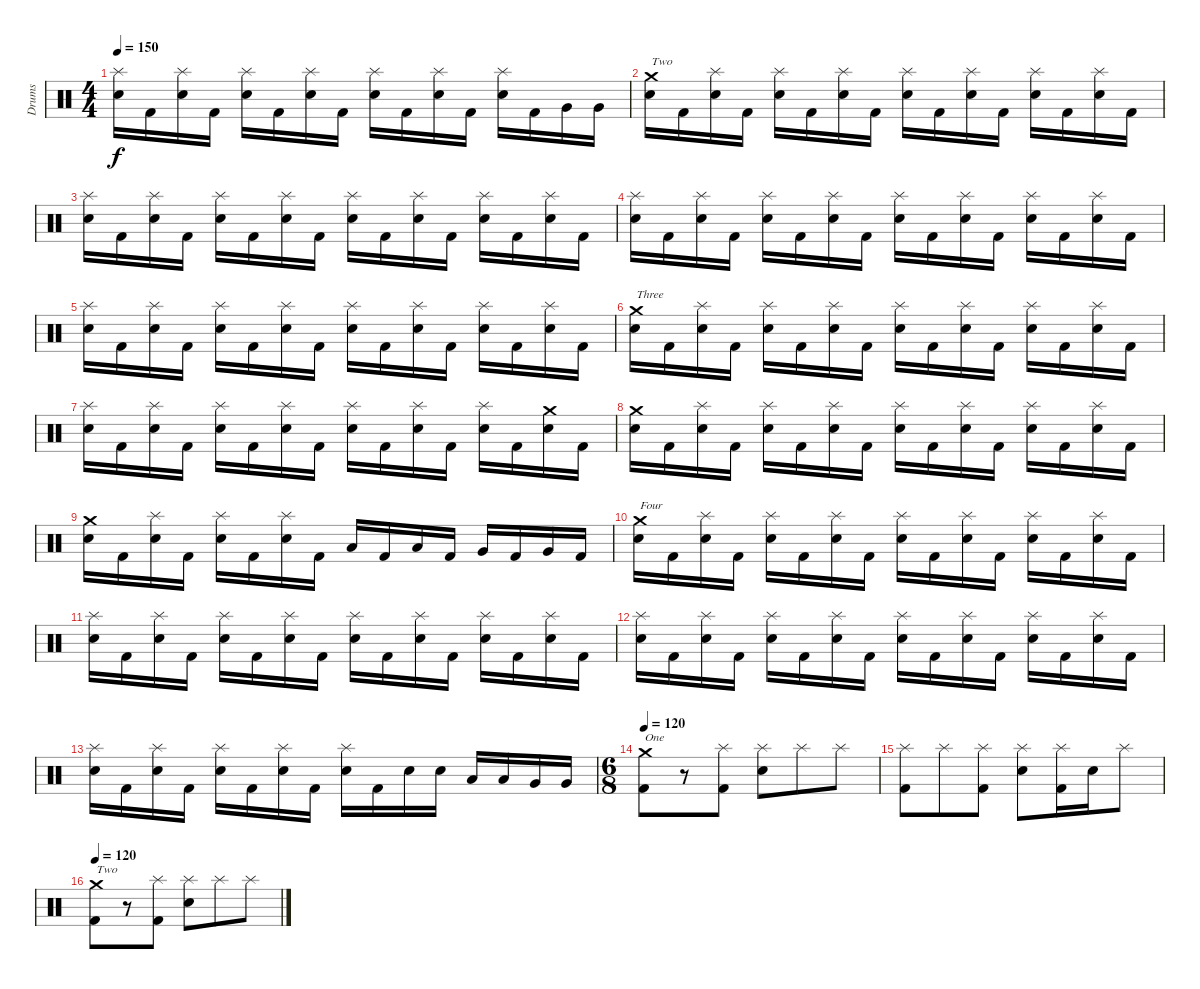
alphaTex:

\track ("Drums" "Drums") {instrument percussion}
\staff {score}
\articulation defaults
\ts (4 4)
\tempo 150
\clef neutral
\ks c
("Splash (hit)" "Snare (hit) 2").16{dy f} "Kick (hit) 2".16 ("Splash (hit)" "Snare (hit) 2").16 "Kick (hit) 2".16 ("Splash (hit)" "Snare (hit) 2").16 "Kick (hit) 2".16 ("Splash (hit)" "Snare (hit) 2").16 "Kick (hit) 2".16 ("Splash (hit)" "Snare (hit) 2").16 "Kick (hit) 2".16 ("Splash (hit)" "Snare (hit) 2").16 "Kick (hit) 2".16 ("Splash (hit)" "Snare (hit) 2").16 "Kick (hit) 2".16 "Very Low Tom (hit)".16 "Very Low Tom (hit)".16 |
("Crash medium (hit)" "Snare (hit) 2").16{txt "Two"} "Kick (hit) 2".16 ("Splash (hit)" "Snare (hit) 2").16 "Kick (hit) 2".16 ("Splash (hit)" "Snare (hit) 2").16 "Kick (hit) 2".16 ("Splash (hit)" "Snare (hit) 2").16 "Kick (hit) 2".16 ("Splash (hit)" "Snare (hit) 2").16 "Kick (hit) 2".16 ("Splash (hit)" "Snare (hit) 2").16 "Kick (hit) 2".16 ("Splash (hit)" "Snare (hit) 2").16 "Kick (hit) 2".16 ("Splash (hit)" "Snare (hit) 2").16 "Kick (hit) 2".16 |
("Splash (hit)" "Snare (hit) 2").16 "Kick (hit) 2".16 ("Splash (hit)" "Snare (hit) 2").16 "Kick (hit) 2".16 ("Splash (hit)" "Snare (hit) 2").16 "Kick (hit) 2".16 ("Splash (hit)" "Snare (hit) 2").16 "Kick (hit) 2".16 ("Splash (hit)" "Snare (hit) 2").16 "Kick (hit) 2".16 ("Splash (hit)" "Snare (hit) 2").16 "Kick (hit) 2".16 ("Splash (hit)" "Snare (hit) 2").16 "Kick (hit) 2".16 ("Splash (hit)" "Snare (hit) 2").16 "Kick (hit) 2".16 |
("Splash (hit)" "Snare (hit) 2").16 "Kick (hit) 2".16 ("Splash (hit)" "Snare (hit) 2").16 "Kick (hit) 2".16 ("Splash (hit)" "Snare (hit) 2").16 "Kick (hit) 2".16 ("Splash (hit)" "Snare (hit) 2").16 "Kick (hit) 2".16 ("Splash (hit)" "Snare (hit) 2").16 "Kick (hit) 2".16 ("Splash (hit)" "Snare (hit) 2").16 "Kick (hit) 2".16 ("Splash (hit)" "Snare (hit) 2").16 "Kick (hit) 2".16 ("Splash (hit)" "Snare (hit) 2").16 "Kick (hit) 2".16 |
("Splash (hit)" "Snare (hit) 2").16 "Kick (hit) 2".16 ("Splash (hit)" "Snare (hit) 2").16 "Kick (hit) 2".16 ("Splash (hit)" "Snare (hit) 2").16 "Kick (hit) 2".16 ("Splash (hit)" "Snare (hit) 2").16 "Kick (hit) 2".16 ("Splash (hit)" "Snare (hit) 2").16 "Kick (hit) 2".16 ("Splash (hit)" "Snare (hit) 2").16 "Kick (hit) 2".16 ("Splash (hit)" "Snare (hit) 2").16 "Kick (hit) 2".16 ("Splash (hit)" "Snare (hit) 2").16 "Kick (hit) 2".16 |
("Crash medium (hit)" "Snare (hit) 2").16{txt "Three"} "Kick (hit) 2".16 ("Splash (hit)" "Snare (hit) 2").16 "Kick (hit) 2".16 ("Splash (hit)" "Snare (hit) 2").16 "Kick (hit) 2".16 ("Splash (hit)" "Snare (hit) 2").16 "Kick (hit) 2".16 ("Splash (hit)" "Snare (hit) 2").16 "Kick (hit) 2".16 ("Splash (hit)" "Snare (hit) 2").16 "Kick (hit) 2".16 ("Splash (hit)" "Snare (hit) 2").16 "Kick (hit) 2".16 ("Splash (hit)" "Snare (hit) 2").16 "Kick (hit) 2".16 |
("Splash (hit)" "Snare (hit) 2").16 "Kick (hit) 2".16 ("Splash (hit)" "Snare (hit) 2").16 "Kick (hit) 2".16 ("Splash (hit)" "Snare (hit) 2").16 "Kick (hit) 2".16 ("Splash (hit)" "Snare (hit) 2").16 "Kick (hit) 2".16 ("Splash (hit)" "Snare (hit) 2").16 "Kick (hit) 2".16 ("Splash (hit)" "Snare (hit) 2").16 "Kick (hit) 2".16 ("Splash (hit)" "Snare (hit) 2").16 "Kick (hit) 2".16 ("Crash medium (hit)" "Snare (hit) 2").16 "Kick (hit) 2".16 |
("Crash medium (hit)" "Snare (hit) 2").16 "Kick (hit) 2".16 ("Splash (hit)" "Snare (hit) 2").16 "Kick (hit) 2".16 ("Splash (hit)" "Snare (hit) 2").16 "Kick (hit) 2".16 ("Splash (hit)" "Snare (hit) 2").16 "Kick (hit) 2".16 ("Splash (hit)" "Snare (hit) 2").16 "Kick (hit) 2".16 ("Splash (hit)" "Snare (hit) 2").16 "Kick (hit) 2".16 ("Splash (hit)" "Snare (hit) 2").16 "Kick (hit) 2".16 ("Splash (hit)" "Snare (hit) 2").16 "Kick (hit) 2".16 |
("Crash medium (hit)" "Snare (hit) 2").16 "Kick (hit) 2".16 ("Splash (hit)" "Snare (hit) 2").16 "Kick (hit) 2".16 ("Splash (hit)" "Snare (hit) 2").16 "Kick (hit) 2".16 ("Splash (hit)" "Snare (hit) 2").16 "Kick (hit) 2".16 "Low Tom (hit)".16 "Kick (hit) 2".16 "Low Tom (hit)".16 "Kick (hit) 2".16 "Very Low Tom (hit)".16 "Kick (hit) 2".16 "Very Low Tom (hit)".16 "Kick (hit) 2".16 |
("Crash medium (hit)" "Snare (hit) 2").16{txt "Four"} "Kick (hit) 2".16 ("Splash (hit)" "Snare (hit) 2").16 "Kick (hit) 2".16 ("Splash (hit)" "Snare (hit) 2").16 "Kick (hit) 2".16 ("Splash (hit)" "Snare (hit) 2").16 "Kick (hit) 2".16 ("Splash (hit)" "Snare (hit) 2").16 "Kick (hit) 2".16 ("Splash (hit)" "Snare (hit) 2").16 "Kick (hit) 2".16 ("Splash (hit)" "Snare (hit) 2").16 "Kick (hit) 2".16 ("Splash (hit)" "Snare (hit) 2").16 "Kick (hit) 2".16 |
("Splash (hit)" "Snare (hit) 2").16 "Kick (hit) 2".16 ("Splash (hit)" "Snare (hit) 2").16 "Kick (hit) 2".16 ("Splash (hit)" "Snare (hit) 2").16 "Kick (hit) 2".16 ("Splash (hit)" "Snare (hit) 2").16 "Kick (hit) 2".16 ("Splash (hit)" "Snare (hit) 2").16 "Kick (hit) 2".16 ("Splash (hit)" "Snare (hit) 2").16 "Kick (hit) 2".16 ("Splash (hit)" "Snare (hit) 2").16 "Kick (hit) 2".16 ("Splash (hit)" "Snare (hit) 2").16 "Kick (hit) 2".16 |
("Splash (hit)" "Snare (hit) 2").16 "Kick (hit) 2".16 ("Splash (hit)" "Snare (hit) 2").16 "Kick (hit) 2".16 ("Splash (hit)" "Snare (hit) 2").16 "Kick (hit) 2".16 ("Splash (hit)" "Snare (hit) 2").16 "Kick (hit) 2".16 ("Splash (hit)" "Snare (hit) 2").16 "Kick (hit) 2".16 ("Splash (hit)" "Snare (hit) 2").16 "Kick (hit) 2".16 ("Splash (hit)" "Snare (hit) 2").16 "Kick (hit) 2".16 ("Splash (hit)" "Snare (hit) 2").16 "Kick (hit) 2".16 |
("Splash (hit)" "Snare (hit) 2").16 "Kick (hit) 2".16 ("Splash (hit)" "Snare (hit) 2").16 "Kick (hit) 2".16 ("Splash (hit)" "Snare (hit) 2").16 "Kick (hit) 2".16 ("Splash (hit)" "Snare (hit) 2").16 "Kick (hit) 2".16 ("Splash (hit)" "Snare (hit) 2").16 "Kick (hit) 2".16 "Snare (hit) 2".16 "Snare (hit) 2".16 "Low Tom (hit)".16 "Low Tom (hit)".16 "Very Low Tom (hit)".16 "Very Low Tom (hit)".16 |
\ts (6 8)
\tempo 120
("Crash medium (hit)" "Kick (hit) 2").8{txt "One"} r.8 ("Splash (hit)" "Kick (hit) 2").8 ("Splash (hit)" "Snare (hit) 2").8 "Splash (hit)".8 "Splash (hit)".8 |
("Splash (hit)" "Kick (hit) 2").8 "Splash (hit)".8 ("Splash (hit)" "Kick (hit) 2").8 ("Splash (hit)" "Snare (hit) 2").8 ("Splash (hit)" "Kick (hit) 2").16 "Snare (hit) 2".16 "Splash (hit)".8 |
\tempo 120
("Crash medium (hit)" "Kick (hit) 2").8{txt "Two"} r.8 ("Splash (hit)" "Kick (hit) 2").8 ("Splash (hit)" "Snare (hit) 2").8 "Splash (hit)".8 "Splash (hit)".8
